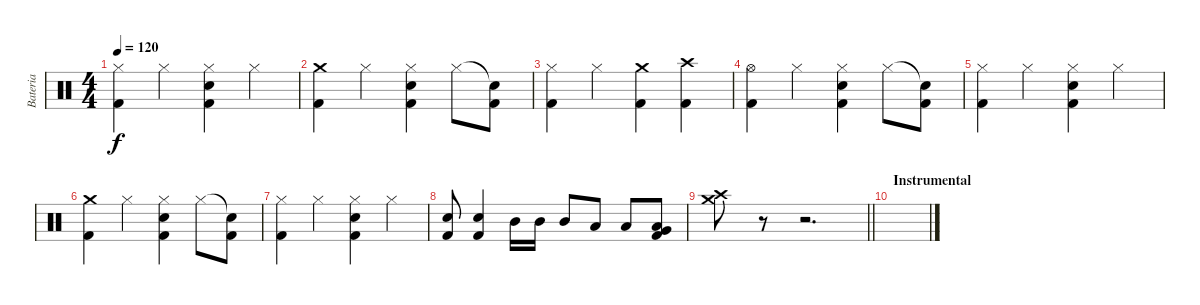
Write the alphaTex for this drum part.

\track ("Bateria" "Bateria") {instrument percussion}
\staff {score}
\articulation defaults
\ts (4 4)
\tempo 120
\clef neutral
\ks c
("Hi-Hat (closed)" "Kick (hit) 2").4{dy f} "Hi-Hat (closed)".4 ("Hi-Hat (closed)" "Electric Snare (hit)" "Kick (hit) 2").4 "Hi-Hat (closed)".4 |
("Crash medium (hit)" "Kick (hit) 2").4 "Hi-Hat (closed)".4 ("Hi-Hat (closed)" "Electric Snare (hit)" "Kick (hit) 2").4 "Hi-Hat (closed)".8 ("Snare (hit)"{t} "Kick (hit) 2").8 |
("Hi-Hat (closed)" "Kick (hit) 2").4 "Hi-Hat (closed)".4 ("Crash medium (hit)" "Kick (hit) 2").4 ("Crash high (hit)" "Kick (hit) 2").4 |
("Hi-Hat (open)" "Kick (hit) 2").4 "Hi-Hat (closed)".4 ("Hi-Hat (closed)" "Electric Snare (hit)" "Kick (hit) 2").4 "Hi-Hat (closed)".8 ("Snare (hit)"{t} "Kick (hit) 2").8 |
("Hi-Hat (closed)" "Kick (hit) 2").4 "Hi-Hat (closed)".4 ("Hi-Hat (closed)" "Electric Snare (hit)" "Kick (hit) 2").4 "Hi-Hat (closed)".4 |
("Crash medium (hit)" "Kick (hit) 2").4 "Hi-Hat (closed)".4 ("Hi-Hat (closed)" "Electric Snare (hit)" "Kick (hit) 2").4 "Hi-Hat (closed)".8 ("Snare (hit)"{t} "Kick (hit) 2").8 |
("Hi-Hat (closed)" "Kick (hit) 2").4 "Hi-Hat (closed)".4 ("Hi-Hat (closed)" "Electric Snare (hit)" "Kick (hit) 2").4 "Hi-Hat (closed)".4 |
("Electric Snare (hit)" "Kick (hit) 2").8 ("Electric Snare (hit)" "Kick (hit) 2").4 "Mid Tom (hit)".16 "Mid Tom (hit)".16 "Mid Tom (hit)".8 "Low Tom (hit)".8 "Low Tom (hit)".8 ("Low Tom (hit)" "Very Low Tom (hit)" "Kick (hit) 2").8 |
\barLineRight lightlight
("Crash medium (hit)" "Crash high (hit)").8 r.8 r.2{d} |
\section ("" "Instrumental")
